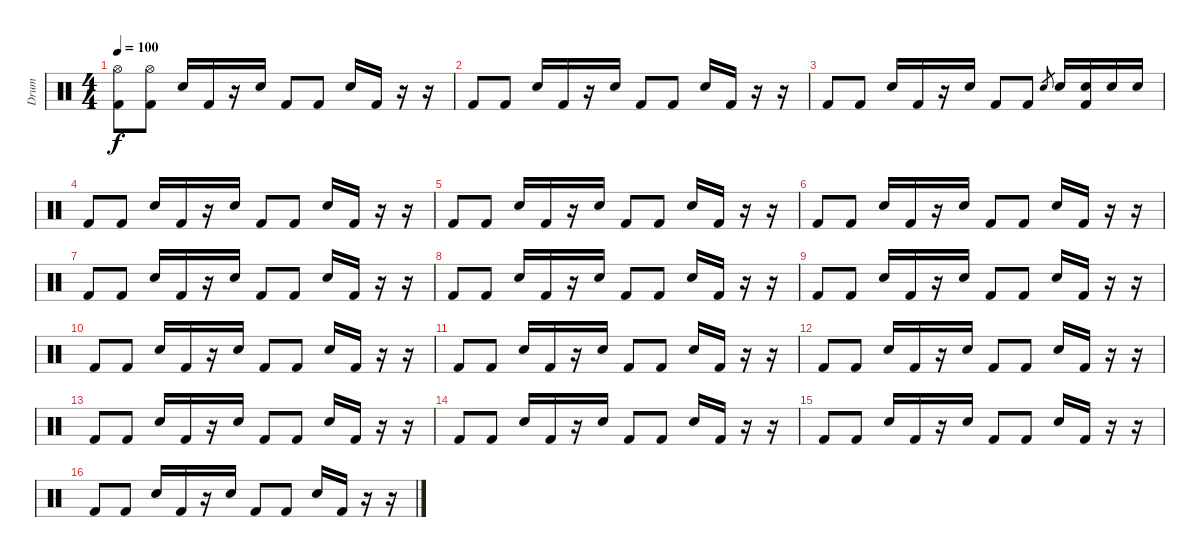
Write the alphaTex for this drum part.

\track ("Drum" "Drum") {instrument percussion}
\staff {score}
\articulation defaults
\ts (4 4)
\tempo 100
\clef neutral
\ks c
("Hi-Hat (open)" "Kick (hit) 2").8{dy f} ("Hi-Hat (open)" "Kick (hit) 2").8 "Electric Snare (hit)".16 "Kick (hit) 2".16 r.16 "Electric Snare (hit)".16 "Kick (hit) 2".8 "Kick (hit) 2".8 "Electric Snare (hit)".16 "Kick (hit) 2".16 r.16 r.16 |
"Kick (hit) 2".8 "Kick (hit) 2".8 "Electric Snare (hit)".16 "Kick (hit) 2".16 r.16 "Electric Snare (hit)".16 "Kick (hit) 2".8 "Kick (hit) 2".8 "Electric Snare (hit)".16 "Kick (hit) 2".16 r.16 r.16 |
"Kick (hit) 2".8 "Kick (hit) 2".8 "Electric Snare (hit)".16 "Kick (hit) 2".16 r.16 "Electric Snare (hit)".16 "Kick (hit) 2".8 "Kick (hit) 2".8 "Electric Snare (hit)".8{gr} "Electric Snare (hit)".16 ("Electric Snare (hit)" "Kick (hit) 2").16 "Electric Snare (hit)".16 "Electric Snare (hit)".16 |
"Kick (hit) 2".8 "Kick (hit) 2".8 "Electric Snare (hit)".16 "Kick (hit) 2".16 r.16 "Electric Snare (hit)".16 "Kick (hit) 2".8 "Kick (hit) 2".8 "Electric Snare (hit)".16 "Kick (hit) 2".16 r.16 r.16 |
"Kick (hit) 2".8 "Kick (hit) 2".8 "Electric Snare (hit)".16 "Kick (hit) 2".16 r.16 "Electric Snare (hit)".16 "Kick (hit) 2".8 "Kick (hit) 2".8 "Electric Snare (hit)".16 "Kick (hit) 2".16 r.16 r.16 |
"Kick (hit) 2".8 "Kick (hit) 2".8 "Electric Snare (hit)".16 "Kick (hit) 2".16 r.16 "Electric Snare (hit)".16 "Kick (hit) 2".8 "Kick (hit) 2".8 "Electric Snare (hit)".16 "Kick (hit) 2".16 r.16 r.16 |
"Kick (hit) 2".8 "Kick (hit) 2".8 "Electric Snare (hit)".16 "Kick (hit) 2".16 r.16 "Electric Snare (hit)".16 "Kick (hit) 2".8 "Kick (hit) 2".8 "Electric Snare (hit)".16 "Kick (hit) 2".16 r.16 r.16 |
"Kick (hit) 2".8 "Kick (hit) 2".8 "Electric Snare (hit)".16 "Kick (hit) 2".16 r.16 "Electric Snare (hit)".16 "Kick (hit) 2".8 "Kick (hit) 2".8 "Electric Snare (hit)".16 "Kick (hit) 2".16 r.16 r.16 |
"Kick (hit) 2".8 "Kick (hit) 2".8 "Electric Snare (hit)".16 "Kick (hit) 2".16 r.16 "Electric Snare (hit)".16 "Kick (hit) 2".8 "Kick (hit) 2".8 "Electric Snare (hit)".16 "Kick (hit) 2".16 r.16 r.16 |
"Kick (hit) 2".8 "Kick (hit) 2".8 "Electric Snare (hit)".16 "Kick (hit) 2".16 r.16 "Electric Snare (hit)".16 "Kick (hit) 2".8 "Kick (hit) 2".8 "Electric Snare (hit)".16 "Kick (hit) 2".16 r.16 r.16 |
"Kick (hit) 2".8 "Kick (hit) 2".8 "Electric Snare (hit)".16 "Kick (hit) 2".16 r.16 "Electric Snare (hit)".16 "Kick (hit) 2".8 "Kick (hit) 2".8 "Electric Snare (hit)".16 "Kick (hit) 2".16 r.16 r.16 |
"Kick (hit) 2".8 "Kick (hit) 2".8 "Electric Snare (hit)".16 "Kick (hit) 2".16 r.16 "Electric Snare (hit)".16 "Kick (hit) 2".8 "Kick (hit) 2".8 "Electric Snare (hit)".16 "Kick (hit) 2".16 r.16 r.16 |
"Kick (hit) 2".8 "Kick (hit) 2".8 "Electric Snare (hit)".16 "Kick (hit) 2".16 r.16 "Electric Snare (hit)".16 "Kick (hit) 2".8 "Kick (hit) 2".8 "Electric Snare (hit)".16 "Kick (hit) 2".16 r.16 r.16 |
"Kick (hit) 2".8 "Kick (hit) 2".8 "Electric Snare (hit)".16 "Kick (hit) 2".16 r.16 "Electric Snare (hit)".16 "Kick (hit) 2".8 "Kick (hit) 2".8 "Electric Snare (hit)".16 "Kick (hit) 2".16 r.16 r.16 |
"Kick (hit) 2".8 "Kick (hit) 2".8 "Electric Snare (hit)".16 "Kick (hit) 2".16 r.16 "Electric Snare (hit)".16 "Kick (hit) 2".8 "Kick (hit) 2".8 "Electric Snare (hit)".16 "Kick (hit) 2".16 r.16 r.16 |
"Kick (hit) 2".8 "Kick (hit) 2".8 "Electric Snare (hit)".16 "Kick (hit) 2".16 r.16 "Electric Snare (hit)".16 "Kick (hit) 2".8 "Kick (hit) 2".8 "Electric Snare (hit)".16 "Kick (hit) 2".16 r.16 r.16
